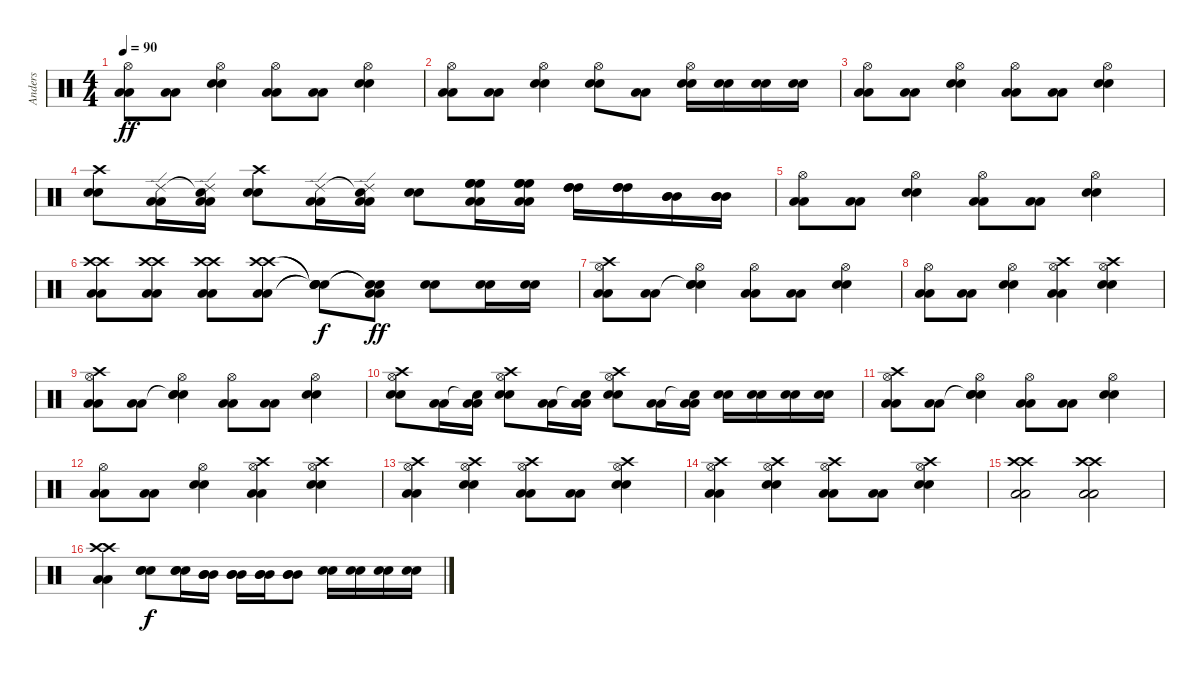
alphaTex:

\track ("Anders" "Anders") {instrument percussion}
\staff {score}
\articulation defaults
\ts (4 4)
\tempo 90
\clef neutral
\ks c
("Hi-Hat (open)" "Low Floor Tom (hit)" "Low Floor Tom (hit)").8{dy ff} ("Low Floor Tom (hit)" "Low Floor Tom (hit)").8 ("Hi-Hat (open)" "Electric Snare (hit)" "Electric Snare (hit)").4 ("Hi-Hat (open)" "Low Floor Tom (hit)" "Low Floor Tom (hit)").8 ("Low Floor Tom (hit)" "Low Floor Tom (hit)").8 ("Hi-Hat (open)" "Electric Snare (hit)" "Electric Snare (hit)").4 |
("Hi-Hat (open)" "Low Floor Tom (hit)" "Low Floor Tom (hit)").8 ("Low Floor Tom (hit)" "Low Floor Tom (hit)").8 ("Hi-Hat (open)" "Electric Snare (hit)" "Electric Snare (hit)").4 ("Hi-Hat (open)" "Electric Snare (hit)" "Electric Snare (hit)").8 ("Low Tom (hit)" "Low Tom (hit)").8 ("Hi-Hat (open)" "Electric Snare (hit)" "Electric Snare (hit)").16 ("Electric Snare (hit)" "Electric Snare (hit)").16 ("Electric Snare (hit)" "Electric Snare (hit)").16 ("Electric Snare (hit)" "Electric Snare (hit)").16 |
("Hi-Hat (open)" "Low Floor Tom (hit)" "Low Floor Tom (hit)").8 ("Low Floor Tom (hit)" "Low Floor Tom (hit)").8 ("Hi-Hat (open)" "Electric Snare (hit)" "Electric Snare (hit)").4 ("Hi-Hat (open)" "Low Floor Tom (hit)" "Low Floor Tom (hit)").8 ("Low Floor Tom (hit)" "Low Floor Tom (hit)").8 ("Hi-Hat (open)" "Electric Snare (hit)" "Electric Snare (hit)").4 |
("Crash high (hit)" "Electric Snare (hit)" "Electric Snare (hit)").8 ("Ride (edge) 2" "Low Floor Tom (hit)" "Low Floor Tom (hit)").16 ("Snare (hit)"{t} "Ride (edge) 2" "Low Floor Tom (hit)" "Low Floor Tom (hit)").16 ("Crash high (hit)" "Electric Snare (hit)" "Electric Snare (hit)").8 ("Ride (edge) 2" "Low Floor Tom (hit)" "Low Floor Tom (hit)").16 ("Snare (hit)"{t} "Ride (edge) 2" "Low Floor Tom (hit)" "Low Floor Tom (hit)").16 ("Electric Snare (hit)" "Electric Snare (hit)").8 ("High Floor Tom (hit)" "High Floor Tom (hit)" "High Floor Tom (hit)" "Low Floor Tom (hit)" "Low Floor Tom (hit)").16 ("High Floor Tom (hit)" "High Floor Tom (hit)" "High Floor Tom (hit)" "Low Floor Tom (hit)" "Low Floor Tom (hit)").16 ("High Tom (hit)" "High Tom (hit)" "High Tom (hit)").16 ("High Tom (hit)" "High Tom (hit)" "High Tom (hit)").16 ("Mid Tom (hit)" "Mid Tom (hit)" "Mid Tom (hit)").16 ("Mid Tom (hit)" "Mid Tom (hit)" "Mid Tom (hit)").16 |
("Hi-Hat (open)" "Low Floor Tom (hit)" "Low Floor Tom (hit)").8 ("Low Floor Tom (hit)" "Low Floor Tom (hit)").8 ("Hi-Hat (open)" "Electric Snare (hit)" "Electric Snare (hit)").4 ("Hi-Hat (open)" "Low Floor Tom (hit)" "Low Floor Tom (hit)").8 ("Low Floor Tom (hit)" "Low Floor Tom (hit)").8 ("Hi-Hat (open)" "Electric Snare (hit)" "Electric Snare (hit)").4 |
("Crash high (hit)" "Crash high (hit)" "Low Floor Tom (hit)" "Low Floor Tom (hit)").8 ("Crash high (hit)" "Crash high (hit)" "Low Floor Tom (hit)" "Low Floor Tom (hit)").8 ("Crash high (hit)" "Crash high (hit)" "Low Floor Tom (hit)" "Low Floor Tom (hit)").8 ("Crash high (hit)" "Crash high (hit)" "Low Floor Tom (hit)" "Low Floor Tom (hit)").8 ("Snare (hit)"{t} "Snare (hit)"{t} "Electric Snare (hit)"{t} "Snare (hit)"{t}).8{dy f} ("Snare (hit)"{t} "Snare (hit)"{t} "Low Floor Tom (hit)" "Low Floor Tom (hit)").8{dy ff} ("Electric Snare (hit)" "Electric Snare (hit)").8 ("Electric Snare (hit)" "Electric Snare (hit)").16 ("Electric Snare (hit)" "Electric Snare (hit)").16 |
("Hi-Hat (open)" "Crash high (hit)" "Low Floor Tom (hit)" "Low Floor Tom (hit)").8 ("Low Floor Tom (hit)" "Low Floor Tom (hit)").8 ("Hi-Hat (open)" "Snare (hit)"{t} "Electric Snare (hit)" "Electric Snare (hit)").4 ("Hi-Hat (open)" "Low Floor Tom (hit)" "Low Floor Tom (hit)").8 ("Low Floor Tom (hit)" "Low Floor Tom (hit)").8 ("Hi-Hat (open)" "Electric Snare (hit)" "Electric Snare (hit)").4 |
("Hi-Hat (open)" "Low Floor Tom (hit)" "Low Floor Tom (hit)").8 ("Low Floor Tom (hit)" "Low Floor Tom (hit)").8 ("Hi-Hat (open)" "Electric Snare (hit)" "Electric Snare (hit)").4 ("Hi-Hat (open)" "Crash high (hit)" "Low Floor Tom (hit)" "Low Floor Tom (hit)").4 ("Hi-Hat (open)" "Crash high (hit)" "Electric Snare (hit)" "Electric Snare (hit)").4 |
("Hi-Hat (open)" "Crash high (hit)" "Low Floor Tom (hit)" "Low Floor Tom (hit)").8 ("Low Floor Tom (hit)" "Low Floor Tom (hit)").8 ("Hi-Hat (open)" "Snare (hit)"{t} "Electric Snare (hit)" "Electric Snare (hit)").4 ("Hi-Hat (open)" "Low Floor Tom (hit)" "Low Floor Tom (hit)").8 ("Low Floor Tom (hit)" "Low Floor Tom (hit)").8 ("Hi-Hat (open)" "Electric Snare (hit)" "Electric Snare (hit)").4 |
("Hi-Hat (open)" "Crash high (hit)" "Electric Snare (hit)" "Electric Snare (hit)").8 ("Low Floor Tom (hit)" "Low Floor Tom (hit)").16 ("Snare (hit)"{t} "Low Floor Tom (hit)" "Low Floor Tom (hit)").16 ("Hi-Hat (open)" "Crash high (hit)" "Electric Snare (hit)" "Electric Snare (hit)").8 ("Low Floor Tom (hit)" "Low Floor Tom (hit)").16 ("Snare (hit)"{t} "Low Floor Tom (hit)" "Low Floor Tom (hit)").16 ("Hi-Hat (open)" "Crash high (hit)" "Electric Snare (hit)" "Electric Snare (hit)").8 ("Low Floor Tom (hit)" "Low Floor Tom (hit)").16 ("Snare (hit)"{t} "Low Floor Tom (hit)" "Low Floor Tom (hit)").16 ("Electric Snare (hit)" "Electric Snare (hit)").16 ("Electric Snare (hit)" "Electric Snare (hit)").16 ("Electric Snare (hit)" "Electric Snare (hit)").16 ("Electric Snare (hit)" "Electric Snare (hit)").16 |
("Hi-Hat (open)" "Crash high (hit)" "Low Floor Tom (hit)" "Low Floor Tom (hit)").8 ("Low Floor Tom (hit)" "Low Floor Tom (hit)").8 ("Hi-Hat (open)" "Snare (hit)"{t} "Electric Snare (hit)" "Electric Snare (hit)").4 ("Hi-Hat (open)" "Low Floor Tom (hit)" "Low Floor Tom (hit)").8 ("Low Floor Tom (hit)" "Low Floor Tom (hit)").8 ("Hi-Hat (open)" "Electric Snare (hit)" "Electric Snare (hit)").4 |
("Hi-Hat (open)" "Low Floor Tom (hit)" "Low Floor Tom (hit)").8 ("Low Floor Tom (hit)" "Low Floor Tom (hit)").8 ("Hi-Hat (open)" "Electric Snare (hit)" "Electric Snare (hit)").4 ("Hi-Hat (open)" "Crash high (hit)" "Low Floor Tom (hit)" "Low Floor Tom (hit)").4 ("Hi-Hat (open)" "Crash high (hit)" "Electric Snare (hit)" "Electric Snare (hit)").4 |
("Crash high (hit)" "Hi-Hat (open)" "Low Floor Tom (hit)" "Low Floor Tom (hit)").4 ("Crash high (hit)" "Hi-Hat (open)" "Electric Snare (hit)" "Electric Snare (hit)").4 ("Crash high (hit)" "Hi-Hat (open)" "Low Floor Tom (hit)" "Low Floor Tom (hit)").8 ("Low Floor Tom (hit)" "Low Floor Tom (hit)").8 ("Hi-Hat (open)" "Crash high (hit)" "Electric Snare (hit)" "Electric Snare (hit)").4 |
("Crash high (hit)" "Hi-Hat (open)" "Low Floor Tom (hit)" "Low Floor Tom (hit)").4 ("Crash high (hit)" "Hi-Hat (open)" "Electric Snare (hit)" "Electric Snare (hit)").4 ("Crash high (hit)" "Hi-Hat (open)" "Low Floor Tom (hit)" "Low Floor Tom (hit)").8 ("Low Floor Tom (hit)" "Low Floor Tom (hit)").8 ("Hi-Hat (open)" "Crash high (hit)" "Electric Snare (hit)" "Electric Snare (hit)").4 |
("Crash high (hit)" "Crash high (hit)" "Low Floor Tom (hit)" "Low Floor Tom (hit)").2 ("Crash high (hit)" "Crash high (hit)" "Low Floor Tom (hit)" "Low Floor Tom (hit)").2 |
("Crash high (hit)" "Crash high (hit)" "Low Floor Tom (hit)" "Low Floor Tom (hit)").4 ("Electric Snare (hit)" "Electric Snare (hit)" "Electric Snare (hit)").8{dy f} ("Electric Snare (hit)" "Electric Snare (hit)" "Electric Snare (hit)").16 ("Mid Tom (hit)" "Mid Tom (hit)" "Mid Tom (hit)").16 ("Mid Tom (hit)" "Mid Tom (hit)" "Mid Tom (hit)").16 ("Mid Tom (hit)" "Mid Tom (hit)" "Mid Tom (hit)").16 ("Mid Tom (hit)" "Mid Tom (hit)" "Mid Tom (hit)").8 ("Electric Snare (hit)" "Electric Snare (hit)").16 ("Electric Snare (hit)" "Electric Snare (hit)").16 ("Electric Snare (hit)" "Electric Snare (hit)").16 ("Electric Snare (hit)" "Electric Snare (hit)").16
